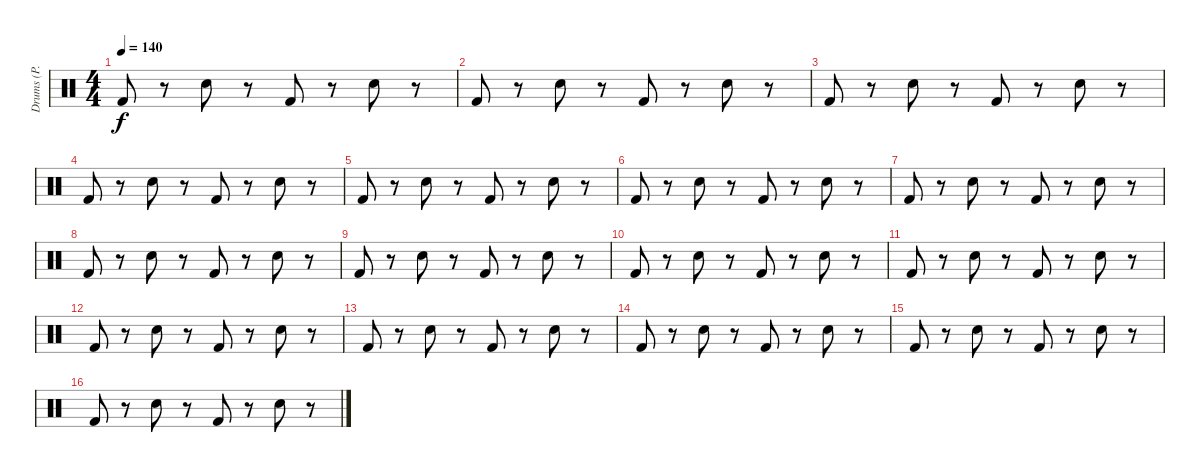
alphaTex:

\track ("Drums (P. Rudd)" "Drums (P. ") {instrument percussion}
\staff {score}
\articulation defaults
\ts (4 4)
\tempo 140
\clef neutral
\ks c "Kick (hit) 2".8{dy f}
r.8 "Snare (hit) 2".8 r.8 "Kick (hit) 2".8 r.8 "Snare (hit) 2".8 r.8 |
"Kick (hit) 2".8 r.8 "Snare (hit) 2".8 r.8 "Kick (hit) 2".8 r.8 "Snare (hit) 2".8 r.8 |
"Kick (hit) 2".8 r.8 "Snare (hit) 2".8 r.8 "Kick (hit) 2".8 r.8 "Snare (hit) 2".8 r.8 |
"Kick (hit) 2".8 r.8 "Snare (hit) 2".8 r.8 "Kick (hit) 2".8 r.8 "Snare (hit) 2".8 r.8 |
"Kick (hit) 2".8 r.8 "Snare (hit) 2".8 r.8 "Kick (hit) 2".8 r.8 "Snare (hit) 2".8 r.8 |
"Kick (hit) 2".8 r.8 "Snare (hit) 2".8 r.8 "Kick (hit) 2".8 r.8 "Snare (hit) 2".8 r.8 |
"Kick (hit) 2".8 r.8 "Snare (hit) 2".8 r.8 "Kick (hit) 2".8 r.8 "Snare (hit) 2".8 r.8 |
"Kick (hit) 2".8 r.8 "Snare (hit) 2".8 r.8 "Kick (hit) 2".8 r.8 "Snare (hit) 2".8 r.8 |
"Kick (hit) 2".8 r.8 "Snare (hit) 2".8 r.8 "Kick (hit) 2".8 r.8 "Snare (hit) 2".8 r.8 |
"Kick (hit) 2".8 r.8 "Snare (hit) 2".8 r.8 "Kick (hit) 2".8 r.8 "Snare (hit) 2".8 r.8 |
"Kick (hit) 2".8 r.8 "Snare (hit) 2".8 r.8 "Kick (hit) 2".8 r.8 "Snare (hit) 2".8 r.8 |
"Kick (hit) 2".8 r.8 "Snare (hit) 2".8 r.8 "Kick (hit) 2".8 r.8 "Snare (hit) 2".8 r.8 |
"Kick (hit) 2".8 r.8 "Snare (hit) 2".8 r.8 "Kick (hit) 2".8 r.8 "Snare (hit) 2".8 r.8 |
"Kick (hit) 2".8 r.8 "Snare (hit) 2".8 r.8 "Kick (hit) 2".8 r.8 "Snare (hit) 2".8 r.8 |
"Kick (hit) 2".8 r.8 "Snare (hit) 2".8 r.8 "Kick (hit) 2".8 r.8 "Snare (hit) 2".8 r.8 |
"Kick (hit) 2".8 r.8 "Snare (hit) 2".8 r.8 "Kick (hit) 2".8 r.8 "Snare (hit) 2".8 r.8
